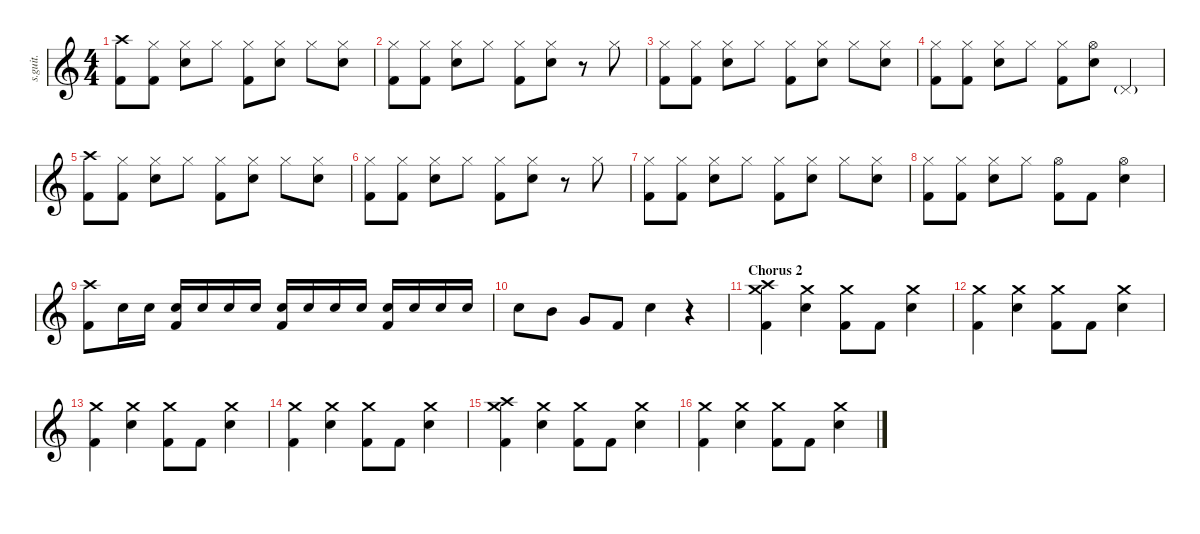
\defaultSystemsLayout 4
\hideDynamics
\bracketExtendMode nobrackets
\track ("Zac Farro | Drums" "s.guit.") {instrument percussion}
\staff {score}
\articulation defaults
\ts (4 4)
\tempo (173 hide)
\clef g2
\ks c
("Crash high (hit)" "Kick (hit) 2").8{lyrics (0 "") lyrics (1 "") lyrics (2 "") lyrics (3 "") lyrics (4 "") dy f} ("Hi-Hat (closed)" "Kick (hit) 2").8{lyrics (0 "") lyrics (1 "") lyrics (2 "") lyrics (3 "") lyrics (4 "")} ("Hi-Hat (closed)" "Electric Snare (hit)").8{lyrics (0 "") lyrics (1 "") lyrics (2 "") lyrics (3 "") lyrics (4 "")} "Hi-Hat (closed)".8{lyrics (0 "") lyrics (1 "") lyrics (2 "") lyrics (3 "") lyrics (4 "")} ("Hi-Hat (closed)" "Kick (hit) 2").8{lyrics (0 "") lyrics (1 "") lyrics (2 "") lyrics (3 "") lyrics (4 "")} ("Hi-Hat (closed)" "Electric Snare (hit)").8{lyrics (0 "") lyrics (1 "") lyrics (2 "") lyrics (3 "") lyrics (4 "")} "Hi-Hat (closed)".8{lyrics (0 "") lyrics (1 "") lyrics (2 "") lyrics (3 "") lyrics (4 "")} ("Hi-Hat (closed)" "Electric Snare (hit)").8{lyrics (0 "") lyrics (1 "") lyrics (2 "") lyrics (3 "") lyrics (4 "")} |
("Hi-Hat (closed)" "Kick (hit) 2").8{lyrics (0 "") lyrics (1 "") lyrics (2 "") lyrics (3 "") lyrics (4 "")} ("Hi-Hat (closed)" "Kick (hit) 2").8{lyrics (0 "") lyrics (1 "") lyrics (2 "") lyrics (3 "") lyrics (4 "")} ("Hi-Hat (closed)" "Electric Snare (hit)").8{lyrics (0 "") lyrics (1 "") lyrics (2 "") lyrics (3 "") lyrics (4 "")} "Hi-Hat (closed)".8{lyrics (0 "") lyrics (1 "") lyrics (2 "") lyrics (3 "") lyrics (4 "")} ("Hi-Hat (closed)" "Kick (hit) 2").8{lyrics (0 "") lyrics (1 "") lyrics (2 "") lyrics (3 "") lyrics (4 "")} ("Hi-Hat (closed)" "Electric Snare (hit)").8{lyrics (0 "") lyrics (1 "") lyrics (2 "") lyrics (3 "") lyrics (4 "")} r.8 "Hi-Hat (closed)".8{lyrics (0 "") lyrics (1 "") lyrics (2 "") lyrics (3 "") lyrics (4 "")} |
("Hi-Hat (closed)" "Kick (hit) 2").8{lyrics (0 "") lyrics (1 "") lyrics (2 "") lyrics (3 "") lyrics (4 "")} ("Hi-Hat (closed)" "Kick (hit) 2").8{lyrics (0 "") lyrics (1 "") lyrics (2 "") lyrics (3 "") lyrics (4 "")} ("Hi-Hat (closed)" "Electric Snare (hit)").8{lyrics (0 "") lyrics (1 "") lyrics (2 "") lyrics (3 "") lyrics (4 "")} "Hi-Hat (closed)".8{lyrics (0 "") lyrics (1 "") lyrics (2 "") lyrics (3 "") lyrics (4 "")} ("Hi-Hat (closed)" "Kick (hit) 2").8{lyrics (0 "") lyrics (1 "") lyrics (2 "") lyrics (3 "") lyrics (4 "")} ("Hi-Hat (closed)" "Electric Snare (hit)").8{lyrics (0 "") lyrics (1 "") lyrics (2 "") lyrics (3 "") lyrics (4 "")} "Hi-Hat (closed)".8{lyrics (0 "") lyrics (1 "") lyrics (2 "") lyrics (3 "") lyrics (4 "")} ("Hi-Hat (closed)" "Electric Snare (hit)").8{lyrics (0 "") lyrics (1 "") lyrics (2 "") lyrics (3 "") lyrics (4 "")} |
("Hi-Hat (closed)" "Kick (hit) 2").8{lyrics (0 "") lyrics (1 "") lyrics (2 "") lyrics (3 "") lyrics (4 "")} ("Hi-Hat (closed)" "Kick (hit) 2").8{lyrics (0 "") lyrics (1 "") lyrics (2 "") lyrics (3 "") lyrics (4 "")} ("Hi-Hat (closed)" "Electric Snare (hit)").8{lyrics (0 "") lyrics (1 "") lyrics (2 "") lyrics (3 "") lyrics (4 "")} "Hi-Hat (closed)".8{lyrics (0 "") lyrics (1 "") lyrics (2 "") lyrics (3 "") lyrics (4 "")} ("Hi-Hat (closed)" "Kick (hit) 2").8{lyrics (0 "") lyrics (1 "") lyrics (2 "") lyrics (3 "") lyrics (4 "")} ("Hi-Hat (open)" "Electric Snare (hit)").8{lyrics (0 "") lyrics (1 "") lyrics (2 "") lyrics (3 "") lyrics (4 "")} "Pedal Hi-Hat (hit)"{g}.4{lyrics (0 "") lyrics (1 "") lyrics (2 "") lyrics (3 "") lyrics (4 "") dy mp} |
("Crash high (hit)" "Kick (hit) 2").8{lyrics (0 "") lyrics (1 "") lyrics (2 "") lyrics (3 "") lyrics (4 "") dy f} ("Hi-Hat (closed)" "Kick (hit) 2").8{lyrics (0 "") lyrics (1 "") lyrics (2 "") lyrics (3 "") lyrics (4 "")} ("Hi-Hat (closed)" "Electric Snare (hit)").8{lyrics (0 "") lyrics (1 "") lyrics (2 "") lyrics (3 "") lyrics (4 "")} "Hi-Hat (closed)".8{lyrics (0 "") lyrics (1 "") lyrics (2 "") lyrics (3 "") lyrics (4 "")} ("Hi-Hat (closed)" "Kick (hit) 2").8{lyrics (0 "") lyrics (1 "") lyrics (2 "") lyrics (3 "") lyrics (4 "")} ("Hi-Hat (closed)" "Electric Snare (hit)").8{lyrics (0 "") lyrics (1 "") lyrics (2 "") lyrics (3 "") lyrics (4 "")} "Hi-Hat (closed)".8{lyrics (0 "") lyrics (1 "") lyrics (2 "") lyrics (3 "") lyrics (4 "")} ("Hi-Hat (closed)" "Electric Snare (hit)").8{lyrics (0 "") lyrics (1 "") lyrics (2 "") lyrics (3 "") lyrics (4 "")} |
("Hi-Hat (closed)" "Kick (hit) 2").8{lyrics (0 "") lyrics (1 "") lyrics (2 "") lyrics (3 "") lyrics (4 "")} ("Hi-Hat (closed)" "Kick (hit) 2").8{lyrics (0 "") lyrics (1 "") lyrics (2 "") lyrics (3 "") lyrics (4 "")} ("Hi-Hat (closed)" "Electric Snare (hit)").8{lyrics (0 "") lyrics (1 "") lyrics (2 "") lyrics (3 "") lyrics (4 "")} "Hi-Hat (closed)".8{lyrics (0 "") lyrics (1 "") lyrics (2 "") lyrics (3 "") lyrics (4 "")} ("Hi-Hat (closed)" "Kick (hit) 2").8{lyrics (0 "") lyrics (1 "") lyrics (2 "") lyrics (3 "") lyrics (4 "")} ("Hi-Hat (closed)" "Electric Snare (hit)").8{lyrics (0 "") lyrics (1 "") lyrics (2 "") lyrics (3 "") lyrics (4 "")} r.8 "Hi-Hat (closed)".8{lyrics (0 "") lyrics (1 "") lyrics (2 "") lyrics (3 "") lyrics (4 "")} |
("Hi-Hat (closed)" "Kick (hit) 2").8{lyrics (0 "") lyrics (1 "") lyrics (2 "") lyrics (3 "") lyrics (4 "")} ("Hi-Hat (closed)" "Kick (hit) 2").8{lyrics (0 "") lyrics (1 "") lyrics (2 "") lyrics (3 "") lyrics (4 "")} ("Hi-Hat (closed)" "Electric Snare (hit)").8{lyrics (0 "") lyrics (1 "") lyrics (2 "") lyrics (3 "") lyrics (4 "")} "Hi-Hat (closed)".8{lyrics (0 "") lyrics (1 "") lyrics (2 "") lyrics (3 "") lyrics (4 "")} ("Hi-Hat (closed)" "Kick (hit) 2").8{lyrics (0 "") lyrics (1 "") lyrics (2 "") lyrics (3 "") lyrics (4 "")} ("Hi-Hat (closed)" "Electric Snare (hit)").8{lyrics (0 "") lyrics (1 "") lyrics (2 "") lyrics (3 "") lyrics (4 "")} "Hi-Hat (closed)".8{lyrics (0 "") lyrics (1 "") lyrics (2 "") lyrics (3 "") lyrics (4 "")} ("Hi-Hat (closed)" "Electric Snare (hit)").8{lyrics (0 "") lyrics (1 "") lyrics (2 "") lyrics (3 "") lyrics (4 "")} |
("Hi-Hat (closed)" "Kick (hit) 2").8{lyrics (0 "") lyrics (1 "") lyrics (2 "") lyrics (3 "") lyrics (4 "")} ("Hi-Hat (closed)" "Kick (hit) 2").8{lyrics (0 "") lyrics (1 "") lyrics (2 "") lyrics (3 "") lyrics (4 "")} ("Hi-Hat (closed)" "Electric Snare (hit)").8{lyrics (0 "") lyrics (1 "") lyrics (2 "") lyrics (3 "") lyrics (4 "")} "Hi-Hat (closed)".8{lyrics (0 "") lyrics (1 "") lyrics (2 "") lyrics (3 "") lyrics (4 "")} ("Hi-Hat (open)" "Kick (hit) 2").8{lyrics (0 "") lyrics (1 "") lyrics (2 "") lyrics (3 "") lyrics (4 "")} "Kick (hit) 2".8{lyrics (0 "") lyrics (1 "") lyrics (2 "") lyrics (3 "") lyrics (4 "")} ("Hi-Hat (open)" "Electric Snare (hit)").4{lyrics (0 "") lyrics (1 "") lyrics (2 "") lyrics (3 "") lyrics (4 "")} |
("Crash high (hit)" "Kick (hit) 2").8{lyrics (0 "") lyrics (1 "") lyrics (2 "") lyrics (3 "") lyrics (4 "")} "Electric Snare (hit)".16{lyrics (0 "") lyrics (1 "") lyrics (2 "") lyrics (3 "") lyrics (4 "") dy pp} "Electric Snare (hit)".16{lyrics (0 "") lyrics (1 "") lyrics (2 "") lyrics (3 "") lyrics (4 "")} ("Electric Snare (hit)" "Kick (hit) 2").16{lyrics (0 "") lyrics (1 "") lyrics (2 "") lyrics (3 "") lyrics (4 "") dy f} "Electric Snare (hit)".16{lyrics (0 "") lyrics (1 "") lyrics (2 "") lyrics (3 "") lyrics (4 "") dy pp} "Electric Snare (hit)".16{lyrics (0 "") lyrics (1 "") lyrics (2 "") lyrics (3 "") lyrics (4 "")} "Electric Snare (hit)".16{lyrics (0 "") lyrics (1 "") lyrics (2 "") lyrics (3 "") lyrics (4 "")} ("Electric Snare (hit)" "Kick (hit) 2").16{lyrics (0 "") lyrics (1 "") lyrics (2 "") lyrics (3 "") lyrics (4 "") dy f} "Electric Snare (hit)".16{lyrics (0 "") lyrics (1 "") lyrics (2 "") lyrics (3 "") lyrics (4 "") dy p} "Electric Snare (hit)".16{lyrics (0 "") lyrics (1 "") lyrics (2 "") lyrics (3 "") lyrics (4 "")} "Electric Snare (hit)".16{lyrics (0 "") lyrics (1 "") lyrics (2 "") lyrics (3 "") lyrics (4 "")} ("Electric Snare (hit)" "Kick (hit) 2").16{lyrics (0 "") lyrics (1 "") lyrics (2 "") lyrics (3 "") lyrics (4 "") dy f} "Electric Snare (hit)".16{lyrics (0 "") lyrics (1 "") lyrics (2 "") lyrics (3 "") lyrics (4 "") dy mp} "Electric Snare (hit)".16{lyrics (0 "") lyrics (1 "") lyrics (2 "") lyrics (3 "") lyrics (4 "")} "Electric Snare (hit)".16{lyrics (0 "") lyrics (1 "") lyrics (2 "") lyrics (3 "") lyrics (4 "")} |
"Electric Snare (hit)".8{lyrics (0 "") lyrics (1 "") lyrics (2 "") lyrics (3 "") lyrics (4 "") dy f} "Mid Tom (hit)".8{lyrics (0 "") lyrics (1 "") lyrics (2 "") lyrics (3 "") lyrics (4 "")} "Very Low Tom (hit)".8{lyrics (0 "") lyrics (1 "") lyrics (2 "") lyrics (3 "") lyrics (4 "")} "Kick (hit) 2".8{lyrics (0 "") lyrics (1 "") lyrics (2 "") lyrics (3 "") lyrics (4 "")} "Electric Snare (hit)".4{lyrics (0 "") lyrics (1 "") lyrics (2 "") lyrics (3 "") lyrics (4 "")} r.4 |
\section ("" "Chorus 2")
("Crash high (hit)" "Crash medium (hit)" "Kick (hit) 2").4{lyrics (0 "") lyrics (1 "") lyrics (2 "") lyrics (3 "") lyrics (4 "")} ("Crash medium (hit)" "Electric Snare (hit)").4{lyrics (0 "") lyrics (1 "") lyrics (2 "") lyrics (3 "") lyrics (4 "")} ("Crash medium (hit)" "Kick (hit) 2").8{lyrics (0 "") lyrics (1 "") lyrics (2 "") lyrics (3 "") lyrics (4 "")} "Kick (hit) 2".8{lyrics (0 "") lyrics (1 "") lyrics (2 "") lyrics (3 "") lyrics (4 "")} ("Crash medium (hit)" "Electric Snare (hit)").4{lyrics (0 "") lyrics (1 "") lyrics (2 "") lyrics (3 "") lyrics (4 "")} |
("Crash medium (hit)" "Kick (hit) 2").4{lyrics (0 "") lyrics (1 "") lyrics (2 "") lyrics (3 "") lyrics (4 "")} ("Crash medium (hit)" "Electric Snare (hit)").4{lyrics (0 "") lyrics (1 "") lyrics (2 "") lyrics (3 "") lyrics (4 "")} ("Crash medium (hit)" "Kick (hit) 2").8{lyrics (0 "") lyrics (1 "") lyrics (2 "") lyrics (3 "") lyrics (4 "")} "Kick (hit) 2".8{lyrics (0 "") lyrics (1 "") lyrics (2 "") lyrics (3 "") lyrics (4 "")} ("Crash medium (hit)" "Electric Snare (hit)").4{lyrics (0 "") lyrics (1 "") lyrics (2 "") lyrics (3 "") lyrics (4 "")} |
("Crash medium (hit)" "Kick (hit) 2").4{lyrics (0 "") lyrics (1 "") lyrics (2 "") lyrics (3 "") lyrics (4 "")} ("Crash medium (hit)" "Electric Snare (hit)").4{lyrics (0 "") lyrics (1 "") lyrics (2 "") lyrics (3 "") lyrics (4 "")} ("Crash medium (hit)" "Kick (hit) 2").8{lyrics (0 "") lyrics (1 "") lyrics (2 "") lyrics (3 "") lyrics (4 "")} "Kick (hit) 2".8{lyrics (0 "") lyrics (1 "") lyrics (2 "") lyrics (3 "") lyrics (4 "")} ("Crash medium (hit)" "Electric Snare (hit)").4{lyrics (0 "") lyrics (1 "") lyrics (2 "") lyrics (3 "") lyrics (4 "")} |
("Crash medium (hit)" "Kick (hit) 2").4{lyrics (0 "") lyrics (1 "") lyrics (2 "") lyrics (3 "") lyrics (4 "")} ("Crash medium (hit)" "Electric Snare (hit)").4{lyrics (0 "") lyrics (1 "") lyrics (2 "") lyrics (3 "") lyrics (4 "")} ("Crash medium (hit)" "Kick (hit) 2").8{lyrics (0 "") lyrics (1 "") lyrics (2 "") lyrics (3 "") lyrics (4 "")} "Kick (hit) 2".8{lyrics (0 "") lyrics (1 "") lyrics (2 "") lyrics (3 "") lyrics (4 "")} ("Crash medium (hit)" "Electric Snare (hit)").4{lyrics (0 "") lyrics (1 "") lyrics (2 "") lyrics (3 "") lyrics (4 "")} |
("Crash high (hit)" "Crash medium (hit)" "Kick (hit) 2").4{lyrics (0 "") lyrics (1 "") lyrics (2 "") lyrics (3 "") lyrics (4 "")} ("Crash medium (hit)" "Electric Snare (hit)").4{lyrics (0 "") lyrics (1 "") lyrics (2 "") lyrics (3 "") lyrics (4 "")} ("Crash medium (hit)" "Kick (hit) 2").8{lyrics (0 "") lyrics (1 "") lyrics (2 "") lyrics (3 "") lyrics (4 "")} "Kick (hit) 2".8{lyrics (0 "") lyrics (1 "") lyrics (2 "") lyrics (3 "") lyrics (4 "")} ("Crash medium (hit)" "Electric Snare (hit)").4{lyrics (0 "") lyrics (1 "") lyrics (2 "") lyrics (3 "") lyrics (4 "")} |
("Crash medium (hit)" "Kick (hit) 2").4{lyrics (0 "") lyrics (1 "") lyrics (2 "") lyrics (3 "") lyrics (4 "")} ("Crash medium (hit)" "Electric Snare (hit)").4{lyrics (0 "") lyrics (1 "") lyrics (2 "") lyrics (3 "") lyrics (4 "")} ("Crash medium (hit)" "Kick (hit) 2").8{lyrics (0 "") lyrics (1 "") lyrics (2 "") lyrics (3 "") lyrics (4 "")} "Kick (hit) 2".8{lyrics (0 "") lyrics (1 "") lyrics (2 "") lyrics (3 "") lyrics (4 "")} ("Crash medium (hit)" "Electric Snare (hit)").4{lyrics (0 "") lyrics (1 "") lyrics (2 "") lyrics (3 "") lyrics (4 "")}
